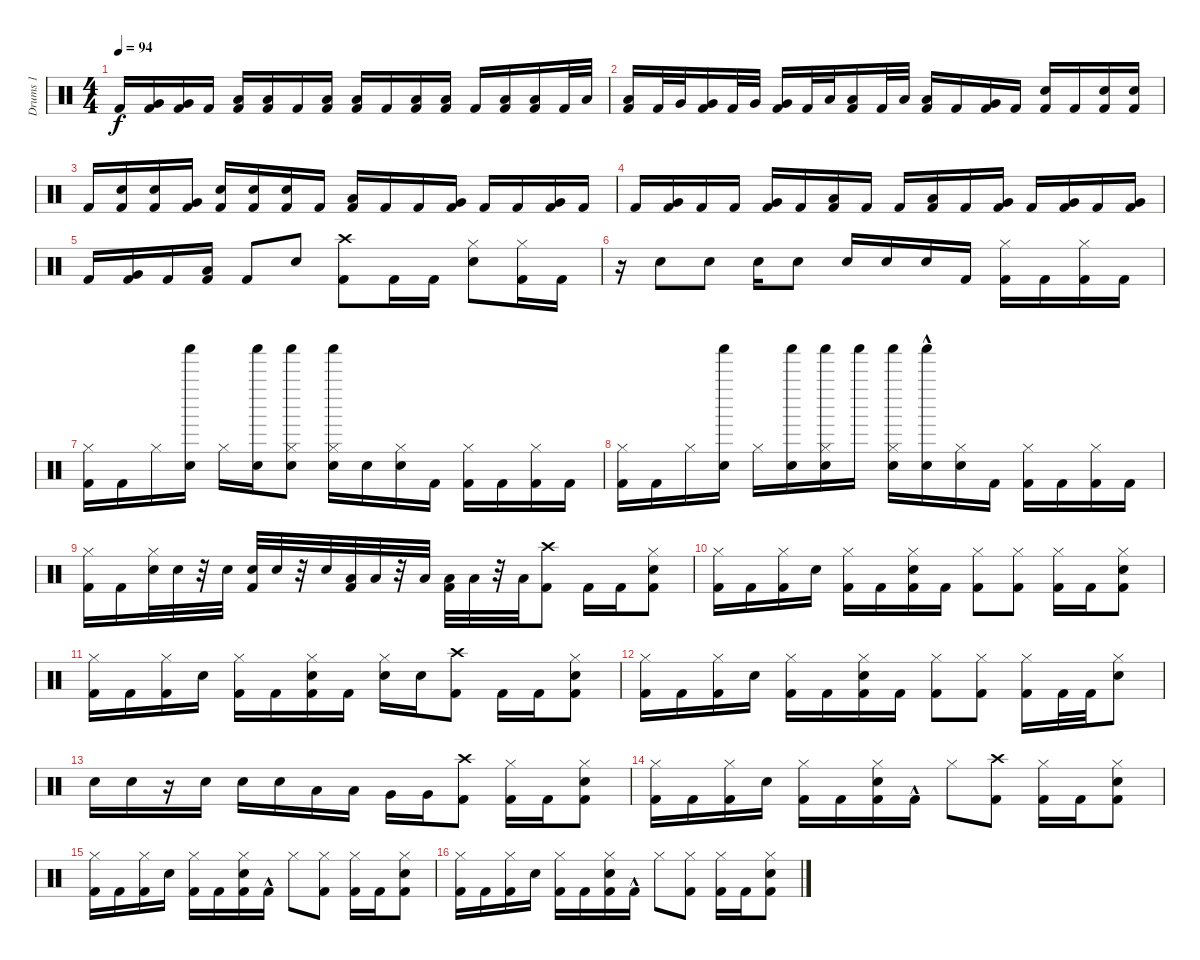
\track ("Drums 1" "Drums 1") {instrument percussion}
\staff {score}
\articulation defaults
\ts (4 4)
\tempo 94
\clef neutral
\ks c "Kick (hit) 2".16{dy f}
("Kick (hit) 2" "Very Low Tom (hit)").16 ("Kick (hit) 2" "Very Low Tom (hit)").16 "Kick (hit) 2".16 ("Low Floor Tom (hit)" "Kick (hit) 2").16 ("Low Floor Tom (hit)" "Kick (hit) 2").16 "Kick (hit) 2".16 ("Kick (hit) 2" "Low Floor Tom (hit)").16 ("Low Floor Tom (hit)" "Kick (hit) 2").16 "Kick (hit) 2".16 ("Kick (hit) 2" "Low Floor Tom (hit)").16 ("Low Floor Tom (hit)" "Kick (hit) 2").16 "Kick (hit) 2".16 ("Kick (hit) 2" "Low Floor Tom (hit)").16 ("Kick (hit) 2" "Low Floor Tom (hit)").16 "Kick (hit) 2".32 "Low Floor Tom (hit)".32 |
("Low Floor Tom (hit)" "Kick (hit) 2").16 "Kick (hit) 2".32 "Very Low Tom (hit)".32 ("Very Low Tom (hit)" "Kick (hit) 2").16 "Kick (hit) 2".32 "Very Low Tom (hit)".32 ("Very Low Tom (hit)" "Kick (hit) 2").16 "Kick (hit) 2".32 "Low Tom (hit)".32 ("Low Tom (hit)" "Kick (hit) 2").16 "Kick (hit) 2".32 "Low Tom (hit)".32 ("Low Tom (hit)" "Kick (hit) 2").16 "Kick (hit) 2".16 ("Kick (hit) 2" "Very Low Tom (hit)").16 "Kick (hit) 2".16 ("Kick (hit) 2" "Snare (hit) 2").16 "Kick (hit) 2".16 ("Snare (hit) 2" "Kick (hit) 2").16 ("Kick (hit) 2" "Snare (hit) 2").16 |
"Kick (hit) 2".16 ("Electric Snare (hit)" "Kick (hit) 2").16 ("Kick (hit) 2" "Electric Snare (hit)").16 ("Kick (hit) 2" "Very Low Tom (hit)").16 ("Snare (hit) 2" "Kick (hit) 2").16 ("Electric Snare (hit)" "Kick (hit) 2").16 ("Kick (hit) 2" "Snare (hit) 2").16 "Kick (hit) 2".16 ("Kick (hit) 2" "Low Tom (hit)").16 "Kick (hit) 2".16 "Kick (hit) 2".16 ("Kick (hit) 2" "Very Low Tom (hit)").16 "Kick (hit) 2".16 "Kick (hit) 2".16 ("Kick (hit) 2" "Very Low Tom (hit)").16 "Kick (hit) 2".16 |
"Kick (hit) 2".16 ("Very Low Tom (hit)" "Kick (hit) 2").16 "Kick (hit) 2".16 "Kick (hit) 2".16 ("Very Low Tom (hit)" "Kick (hit) 2").16 "Kick (hit) 2".16 ("Kick (hit) 2" "Low Floor Tom (hit)").16 "Kick (hit) 2".16 "Kick (hit) 2".16 ("Kick (hit) 2" "Low Tom (hit)").16 "Kick (hit) 2".16 ("Kick (hit) 2" "Very Low Tom (hit)").16 "Kick (hit) 2".16 ("Very Low Tom (hit)" "Kick (hit) 2").16 "Kick (hit) 2".16 ("Kick (hit) 2" "Very Low Tom (hit)").16 |
"Kick (hit) 2".16 ("Very Low Tom (hit)" "Kick (hit) 2").16 "Kick (hit) 2".16 ("Low Floor Tom (hit)" "Kick (hit) 2").16 "Kick (hit) 2".8 "Electric Snare (hit)".8 ("Crash high (hit)" "Kick (hit) 2").8 "Kick (hit) 2".16 "Kick (hit) 2".16 ("Hi-Hat (closed)" "Snare (hit) 2").8 ("Hi-Hat (closed)" "Kick (hit) 2").16 "Kick (hit) 2".16 |
r.16 "Electric Snare (hit)".8 "Electric Snare (hit)".8 "Snare (hit) 2".16 "Snare (hit) 2".8 "Snare (hit) 2".16 "Snare (hit) 2".16 "Electric Snare (hit)".16 "Kick (hit) 2".16 ("Hi-Hat (closed)" "Kick (hit) 2").16 "Kick (hit) 2".16 ("Hi-Hat (closed)" "Kick (hit) 2").16 "Kick (hit) 2".16 |
("Hi-Hat (closed)" "Kick (hit) 2").16 "Kick (hit) 2".16 "Hi-Hat (closed)".16 ("Shaker (hit)" "Snare (hit) 2").16 "Hi-Hat (closed)".16 ("Shaker (hit)" "Snare (hit) 2").16 ("Shaker (hit)" "Hi-Hat (closed)" "Snare (hit) 2").8 ("Shaker (hit)" "Hi-Hat (closed)" "Snare (hit) 2").16 "Snare (hit) 2".16 ("Hi-Hat (closed)" "Electric Snare (hit)").16 "Kick (hit) 2".16 ("Hi-Hat (closed)" "Kick (hit) 2").16 "Kick (hit) 2".16 ("Hi-Hat (closed)" "Kick (hit) 2").16 "Kick (hit) 2".16 |
("Hi-Hat (closed)" "Kick (hit) 2").16 "Kick (hit) 2".16 "Hi-Hat (closed)".16 ("Shaker (hit)" "Snare (hit) 2").16 "Hi-Hat (closed)".16 ("Shaker (hit)" "Snare (hit) 2").16 ("Shaker (hit)" "Hi-Hat (closed)" "Snare (hit) 2").16 "Shaker (hit)".16 ("Shaker (hit)" "Hi-Hat (closed)" "Snare (hit) 2").16 ("Shaker (hit)"{hac} "Snare (hit) 2").16 ("Hi-Hat (closed)" "Electric Snare (hit)").16 "Kick (hit) 2".16 ("Hi-Hat (closed)" "Kick (hit) 2").16 "Kick (hit) 2".16 ("Hi-Hat (closed)" "Kick (hit) 2").16 "Kick (hit) 2".16 |
("Hi-Hat (closed)" "Kick (hit) 2").16 "Kick (hit) 2".16 ("Snare (hit) 2" "Hi-Hat (closed)").32 "Snare (hit) 2".32 r.32 "Snare (hit) 2".32 ("Kick (hit) 2" "Snare (hit) 2").32 "Snare (hit) 2".32 r.32 "Snare (hit) 2".32 ("Kick (hit) 2" "Low Tom (hit)").32 "Low Tom (hit)".32 r.32 "Low Tom (hit)".32 ("Kick (hit) 2" "Low Tom (hit)").32 "Low Tom (hit)".32 r.32 "Low Tom (hit)".32 ("Crash high (hit)" "Kick (hit) 2").8 "Kick (hit) 2".16 "Kick (hit) 2".16 ("Hi-Hat (closed)" "Electric Snare (hit)" "Kick (hit) 2").8 |
("Hi-Hat (closed)" "Kick (hit) 2").16 "Kick (hit) 2".16 ("Hi-Hat (closed)" "Kick (hit) 2").16 "Snare (hit) 2".16 ("Hi-Hat (closed)" "Kick (hit) 2").16 "Kick (hit) 2".16 ("Hi-Hat (closed)" "Kick (hit) 2" "Snare (hit) 2").16 "Kick (hit) 2".16 ("Hi-Hat (closed)" "Kick (hit) 2").8 ("Hi-Hat (closed)" "Kick (hit) 2").8 ("Hi-Hat (closed)" "Kick (hit) 2").16 "Kick (hit) 2".16 ("Hi-Hat (closed)" "Electric Snare (hit)" "Kick (hit) 2").8 |
("Hi-Hat (closed)" "Kick (hit) 2").16 "Kick (hit) 2".16 ("Hi-Hat (closed)" "Kick (hit) 2").16 "Snare (hit) 2".16 ("Hi-Hat (closed)" "Kick (hit) 2").16 "Kick (hit) 2".16 ("Hi-Hat (closed)" "Kick (hit) 2" "Snare (hit) 2").16 "Kick (hit) 2".16 ("Hi-Hat (closed)" "Electric Snare (hit)").16 "Electric Snare (hit)".16 ("Crash high (hit)" "Kick (hit) 2").8 "Kick (hit) 2".16 "Kick (hit) 2".16 ("Hi-Hat (closed)" "Electric Snare (hit)" "Kick (hit) 2").8 |
("Hi-Hat (closed)" "Kick (hit) 2").16 "Kick (hit) 2".16 ("Hi-Hat (closed)" "Kick (hit) 2").16 "Snare (hit) 2".16 ("Hi-Hat (closed)" "Kick (hit) 2").16 "Kick (hit) 2".16 ("Hi-Hat (closed)" "Kick (hit) 2" "Snare (hit) 2").16 "Kick (hit) 2".16 ("Hi-Hat (closed)" "Kick (hit) 2").8 ("Kick (hit) 2" "Hi-Hat (closed)").8 ("Kick (hit) 2" "Hi-Hat (closed)").16 "Kick (hit) 2".32 "Kick (hit) 2".32 ("Electric Snare (hit)" "Hi-Hat (closed)").8 |
"Snare (hit) 2".16 "Snare (hit) 2".16 r.16 "Electric Snare (hit)".16 "Snare (hit) 2".16 "Electric Snare (hit)".16 "Low Tom (hit)".16 "Low Tom (hit)".16 "Very Low Tom (hit)".16 "Very Low Tom (hit)".16 ("Kick (hit) 2" "Crash high (hit)").8 ("Kick (hit) 2" "Hi-Hat (closed)").16 "Kick (hit) 2".16 ("Snare (hit) 2" "Kick (hit) 2" "Hi-Hat (closed)").8 |
("Kick (hit) 2" "Hi-Hat (closed)").16 "Kick (hit) 2".16 ("Kick (hit) 2" "Hi-Hat (closed)").16 "Electric Snare (hit)".16 ("Kick (hit) 2" "Hi-Hat (closed)").16 "Kick (hit) 2".16 ("Electric Snare (hit)" "Kick (hit) 2" "Hi-Hat (closed)").16 "Kick (hit) 2"{hac}.16 "Hi-Hat (closed)".8 ("Kick (hit) 2" "Crash high (hit)").8 ("Kick (hit) 2" "Hi-Hat (closed)").16 "Kick (hit) 2".16 ("Snare (hit) 2" "Kick (hit) 2" "Hi-Hat (closed)").8 |
("Kick (hit) 2" "Hi-Hat (closed)").16 "Kick (hit) 2".16 ("Kick (hit) 2" "Hi-Hat (closed)").16 "Electric Snare (hit)".16 ("Kick (hit) 2" "Hi-Hat (closed)").16 "Kick (hit) 2".16 ("Electric Snare (hit)" "Kick (hit) 2" "Hi-Hat (closed)").16 "Kick (hit) 2"{hac}.16 "Hi-Hat (closed)".8 ("Kick (hit) 2" "Hi-Hat (closed)").8 ("Kick (hit) 2" "Hi-Hat (closed)").16 "Kick (hit) 2".16 ("Snare (hit) 2" "Kick (hit) 2" "Hi-Hat (closed)").8 |
("Kick (hit) 2" "Hi-Hat (closed)").16 "Kick (hit) 2".16 ("Kick (hit) 2" "Hi-Hat (closed)").16 "Electric Snare (hit)".16 ("Kick (hit) 2" "Hi-Hat (closed)").16 "Kick (hit) 2".16 ("Electric Snare (hit)" "Kick (hit) 2" "Hi-Hat (closed)").16 "Kick (hit) 2"{hac}.16 "Hi-Hat (closed)".8 ("Kick (hit) 2" "Hi-Hat (closed)").8 ("Kick (hit) 2" "Hi-Hat (closed)").16 "Kick (hit) 2".16 ("Hi-Hat (closed)" "Kick (hit) 2" "Snare (hit) 2").8
